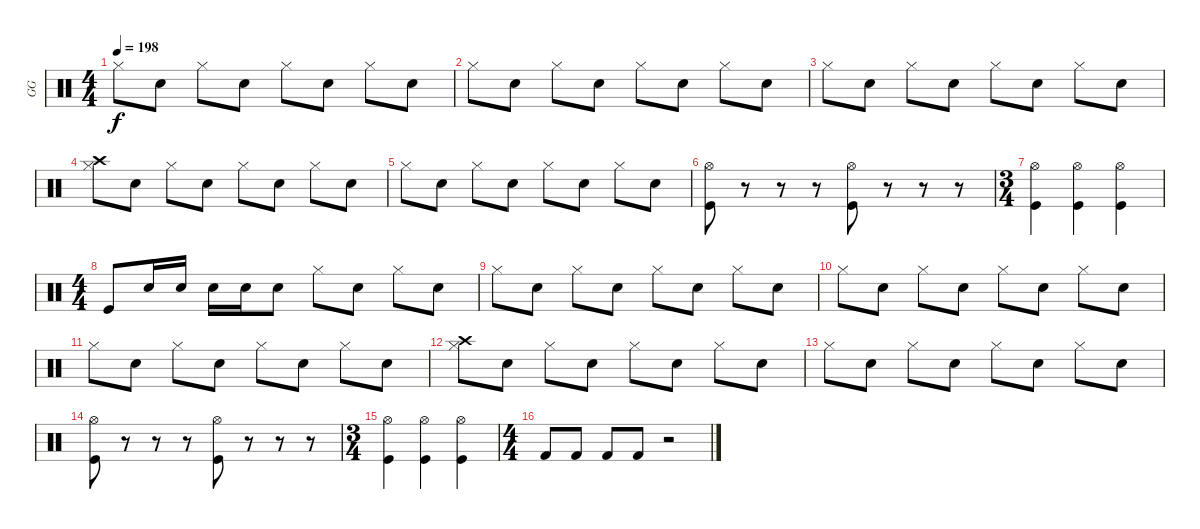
\track ("GG" "GG") {instrument percussion}
\staff {score}
\articulation defaults
\ts (4 4)
\tempo 198
\clef neutral
\ks c "Hi-Hat (closed)".8{dy f} "Snare (hit) 2".8 "Hi-Hat (closed)".8 "Snare (hit) 2".8 "Hi-Hat (closed)".8 "Snare (hit) 2".8 "Hi-Hat (closed)".8 "Snare (hit) 2".8
|
"Hi-Hat (closed)".8 "Snare (hit) 2".8 "Hi-Hat (closed)".8 "Snare (hit) 2".8 "Hi-Hat (closed)".8 "Snare (hit) 2".8 "Hi-Hat (closed)".8 "Snare (hit) 2".8 |
"Hi-Hat (closed)".8 "Snare (hit) 2".8 "Hi-Hat (closed)".8 "Snare (hit) 2".8 "Hi-Hat (closed)".8 "Snare (hit) 2".8 "Hi-Hat (closed)".8 "Snare (hit) 2".8 |
("Crash high (hit)" "Hi-Hat (closed)").8 "Snare (hit) 2".8 "Hi-Hat (closed)".8 "Snare (hit) 2".8 "Hi-Hat (closed)".8 "Snare (hit) 2".8 "Hi-Hat (closed)".8 "Snare (hit) 2".8 |
"Hi-Hat (closed)".8 "Snare (hit) 2".8 "Hi-Hat (closed)".8 "Snare (hit) 2".8 "Hi-Hat (closed)".8 "Snare (hit) 2".8 "Hi-Hat (closed)".8 "Snare (hit) 2".8 |
("Kick (hit)" "Hi-Hat (open)").8 r.8 r.8 r.8 ("Kick (hit)" "Hi-Hat (open)").8 r.8 r.8 r.8 |
\ts (3 4)
("Kick (hit)" "Hi-Hat (open)").4 ("Kick (hit)" "Hi-Hat (open)").4 ("Kick (hit)" "Hi-Hat (open)").4 |
\ts (4 4)
"Kick (hit)".8 "Snare (hit) 2".16 "Snare (hit) 2".16 "Snare (hit) 2".16 "Snare (hit) 2".16 "Snare (hit) 2".8 "Hi-Hat (closed)".8 "Snare (hit) 2".8 "Hi-Hat (closed)".8 "Snare (hit) 2".8 |
"Hi-Hat (closed)".8 "Snare (hit) 2".8 "Hi-Hat (closed)".8 "Snare (hit) 2".8 "Hi-Hat (closed)".8 "Snare (hit) 2".8 "Hi-Hat (closed)".8 "Snare (hit) 2".8 |
"Hi-Hat (closed)".8 "Snare (hit) 2".8 "Hi-Hat (closed)".8 "Snare (hit) 2".8 "Hi-Hat (closed)".8 "Snare (hit) 2".8 "Hi-Hat (closed)".8 "Snare (hit) 2".8 |
"Hi-Hat (closed)".8 "Snare (hit) 2".8 "Hi-Hat (closed)".8 "Snare (hit) 2".8 "Hi-Hat (closed)".8 "Snare (hit) 2".8 "Hi-Hat (closed)".8 "Snare (hit) 2".8 |
("Crash high (hit)" "Hi-Hat (closed)").8 "Snare (hit) 2".8 "Hi-Hat (closed)".8 "Snare (hit) 2".8 "Hi-Hat (closed)".8 "Snare (hit) 2".8 "Hi-Hat (closed)".8 "Snare (hit) 2".8 |
"Hi-Hat (closed)".8 "Snare (hit) 2".8 "Hi-Hat (closed)".8 "Snare (hit) 2".8 "Hi-Hat (closed)".8 "Snare (hit) 2".8 "Hi-Hat (closed)".8 "Snare (hit) 2".8 |
("Kick (hit)" "Hi-Hat (open)").8 r.8 r.8 r.8 ("Kick (hit)" "Hi-Hat (open)").8 r.8 r.8 r.8 |
\ts (3 4)
("Kick (hit)" "Hi-Hat (open)").4 ("Kick (hit)" "Hi-Hat (open)").4 ("Kick (hit)" "Hi-Hat (open)").4 |
\ts (4 4)
"Kick (hit) 2".8 "Kick (hit) 2".8 "Kick (hit) 2".8 "Kick (hit) 2".8 r.2
